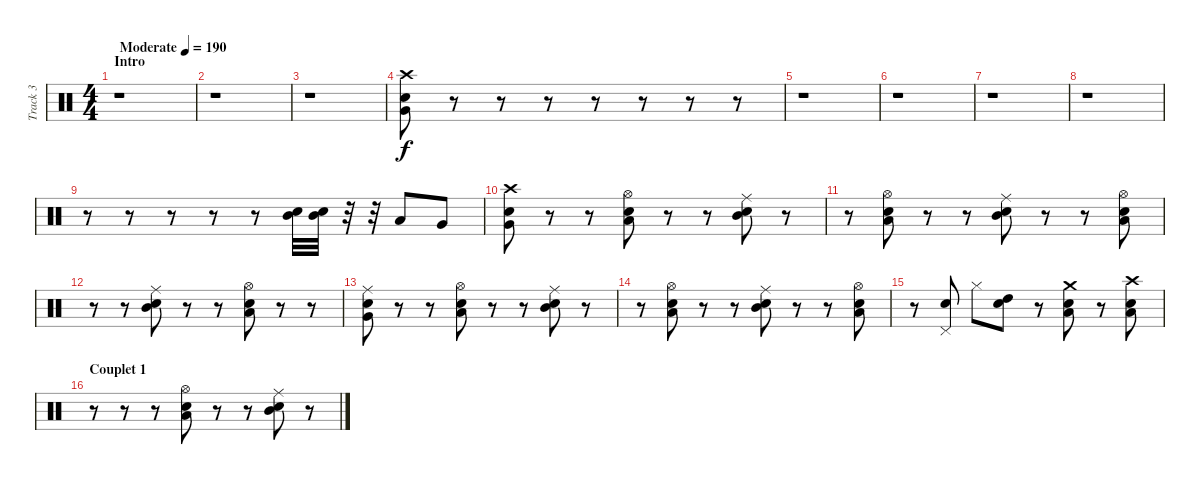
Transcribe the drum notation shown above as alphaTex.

\track ("Track 3" "Track 3") {instrument percussion}
\staff {score}
\articulation defaults
\ts (4 4)
\section ("" "Intro")
\tempo (190 "Moderate")
\clef neutral
\ks c
r.1{dy f} |
r.1 |
r.1 |
("Very Low Tom (hit)" "Snare (hit) 2" "Crash high (hit)").8 r.8 r.8 r.8 r.8 r.8 r.8 r.8 |
r.1 |
r.1 |
r.1 |
r.1 |
r.8 r.8 r.8 r.8 r.8 ("Mid Tom (hit)" "Electric Snare (hit)").32 ("Mid Tom (hit)" "Electric Snare (hit)").32 r.32 r.32 "Low Tom (hit)".8 "Very Low Tom (hit)".8 |
("Very Low Tom (hit)" "Snare (hit) 2" "Crash high (hit)").8 r.8 r.8 ("Low Tom (hit)" "Snare (hit) 2" "Hi-Hat (open)").8 r.8 r.8 ("Mid Tom (hit)" "Snare (hit) 2" "Ride (middle)").8 r.8 |
r.8 ("Low Tom (hit)" "Snare (hit) 2" "Hi-Hat (open)").8 r.8 r.8 ("Mid Tom (hit)" "Snare (hit) 2" "Ride (middle)").8 r.8 r.8 ("Low Tom (hit)" "Snare (hit) 2" "Hi-Hat (open)").8 |
r.8 r.8 ("Mid Tom (hit)" "Snare (hit) 2" "Ride (middle)").8 r.8 r.8 ("Low Tom (hit)" "Snare (hit) 2" "Hi-Hat (open)").8 r.8 r.8 |
("Very Low Tom (hit)" "Snare (hit) 2" "Ride (middle)").8 r.8 r.8 ("Low Tom (hit)" "Snare (hit) 2" "Hi-Hat (open)").8 r.8 r.8 ("Mid Tom (hit)" "Snare (hit) 2" "Ride (middle)").8 r.8 |
r.8 ("Low Tom (hit)" "Snare (hit) 2" "Hi-Hat (open)").8 r.8 r.8 ("Mid Tom (hit)" "Snare (hit) 2" "Ride (middle)").8 r.8 r.8 ("Low Tom (hit)" "Snare (hit) 2" "Hi-Hat (open)").8 |
r.8 ("Pedal Hi-Hat (hit)" "Snare (hit) 2").8 "Hi-Hat (closed)".8 ("Electric Snare (hit)" "High Tom (hit)").8 r.8 ("Electric Snare (hit)" "Low Tom (hit)" "Crash medium (hit)").8 r.8 ("Low Tom (hit)" "Snare (hit) 2" "Crash high (hit)").8 |
\section ("" "Couplet 1")
r.8 r.8 r.8 ("Low Tom (hit)" "Snare (hit) 2" "Hi-Hat (open)").8 r.8 r.8 ("Mid Tom (hit)" "Snare (hit) 2" "Ride (middle)").8 r.8
